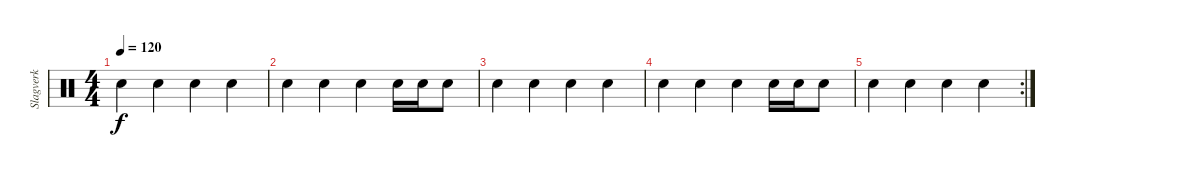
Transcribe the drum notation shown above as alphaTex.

\track ("Slagverk" "Slagverk") {instrument percussion}
\staff {score}
\articulation defaults
\ts (4 4)
\tempo 120
\clef neutral
\ks c "Snare (hit) 2".4{dy f} "Snare (hit) 2".4 "Snare (hit) 2".4 "Snare (hit) 2".4
|
"Snare (hit) 2".4 "Snare (hit) 2".4 "Snare (hit) 2".4 "Snare (hit) 2".16 "Snare (hit) 2".16 "Snare (hit) 2".8 |
"Snare (hit) 2".4 "Snare (hit) 2".4 "Snare (hit) 2".4 "Snare (hit) 2".4 |
"Snare (hit) 2".4 "Snare (hit) 2".4 "Snare (hit) 2".4 "Snare (hit) 2".16 "Snare (hit) 2".16 "Snare (hit) 2".8 |
\rc 2 "Snare (hit) 2".4 "Snare (hit) 2".4 "Snare (hit) 2".4 "Snare (hit) 2".4
